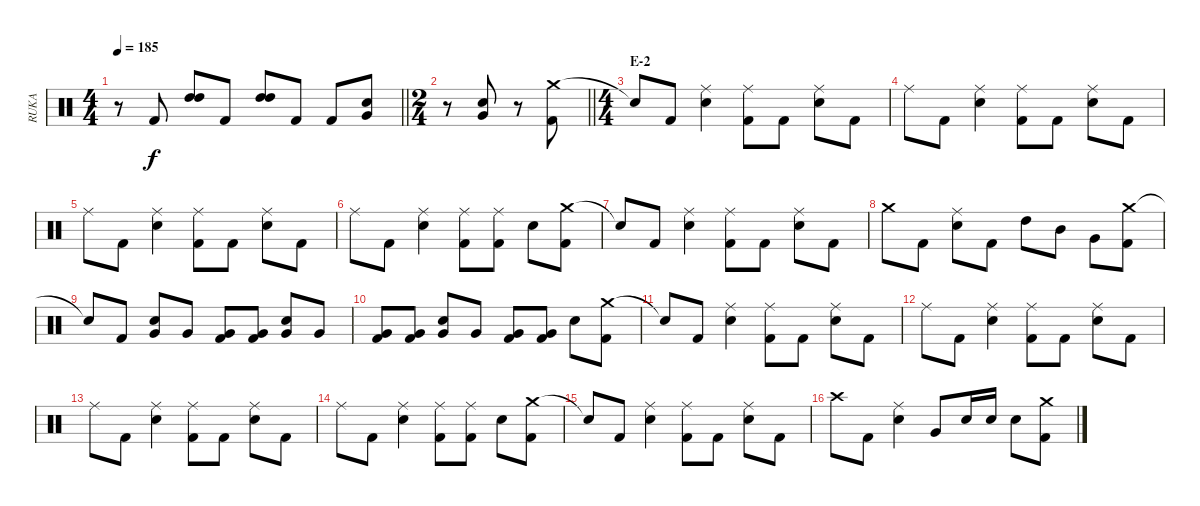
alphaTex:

\track ("RUKA" "RUKA") {instrument percussion}
\staff {score}
\articulation defaults
\ts (4 4)
\tempo 185
\clef neutral
\barLineRight lightlight
\ks c
r.8{dy ff} "Kick (hit) 2".8{dy f} ("High Tom (hit)" "High Tom (hit)").8 "Kick (hit) 2".8 ("High Tom (hit)" "High Tom (hit)").8 "Kick (hit) 2".8 "Kick (hit) 2".8 ("Very Low Tom (hit)" "Electric Snare (hit)").8 |
\ts (2 4)
\barLineRight lightlight
r.8 ("Very Low Tom (hit)" "Electric Snare (hit)").8 r.8 ("Crash medium (hit)" "Kick (hit) 2").8 |
\ts (4 4)
\section ("" "E-2")
"Snare (hit)"{t}.8 "Kick (hit) 2".8 ("Ride (middle)" "Electric Snare (hit)").4 ("Ride (middle)" "Kick (hit) 2").8 "Kick (hit) 2".8 ("Ride (middle)" "Electric Snare (hit)").8 "Kick (hit) 2".8 |
"Ride (middle)".8 "Kick (hit) 2".8 ("Ride (middle)" "Electric Snare (hit)").4 ("Ride (middle)" "Kick (hit) 2").8 "Kick (hit) 2".8 ("Ride (middle)" "Electric Snare (hit)").8 "Kick (hit) 2".8 |
"Ride (middle)".8 "Kick (hit) 2".8 ("Ride (middle)" "Electric Snare (hit)").4 ("Ride (middle)" "Kick (hit) 2").8 "Kick (hit) 2".8 ("Ride (middle)" "Electric Snare (hit)").8 "Kick (hit) 2".8 |
"Ride (middle)".8 "Kick (hit) 2".8 ("Ride (middle)" "Electric Snare (hit)").4 ("Ride (middle)" "Kick (hit) 2").8 ("Ride (middle)" "Kick (hit) 2").8 "Electric Snare (hit)".8 ("Crash medium (hit)" "Kick (hit) 2").8 |
"Snare (hit)"{t}.8 "Kick (hit) 2".8 ("Ride (middle)" "Electric Snare (hit)").4 ("Ride (middle)" "Kick (hit) 2").8 "Kick (hit) 2".8 ("Ride (middle)" "Electric Snare (hit)").8 "Kick (hit) 2".8 |
"Crash medium (hit)".8 "Kick (hit) 2".8 ("Ride (middle)" "Electric Snare (hit)").8 "Kick (hit) 2".8 "High Tom (hit)".8 "Mid Tom (hit)".8 "Very Low Tom (hit)".8 ("Crash medium (hit)" "Kick (hit) 2").8 |
"Snare (hit)"{t}.8 "Kick (hit) 2".8 ("Very Low Tom (hit)" "Electric Snare (hit)").8 "Very Low Tom (hit)".8 ("Very Low Tom (hit)" "Kick (hit) 2").8 ("Very Low Tom (hit)" "Kick (hit) 2").8 ("Electric Snare (hit)" "Very Low Tom (hit)").8 "Very Low Tom (hit)".8 |
("Very Low Tom (hit)" "Kick (hit) 2").8 ("Very Low Tom (hit)" "Kick (hit) 2").8 ("Electric Snare (hit)" "Very Low Tom (hit)").8 "Very Low Tom (hit)".8 ("Very Low Tom (hit)" "Kick (hit) 2").8 ("Very Low Tom (hit)" "Kick (hit) 2").8 "Electric Snare (hit)".8 ("Crash medium (hit)" "Kick (hit) 2").8 |
"Snare (hit)"{t}.8 "Kick (hit) 2".8 ("Ride (middle)" "Electric Snare (hit)").4 ("Ride (middle)" "Kick (hit) 2").8 "Kick (hit) 2".8 ("Ride (middle)" "Electric Snare (hit)").8 "Kick (hit) 2".8 |
"Ride (middle)".8 "Kick (hit) 2".8 ("Ride (middle)" "Electric Snare (hit)").4 ("Ride (middle)" "Kick (hit) 2").8 "Kick (hit) 2".8 ("Ride (middle)" "Electric Snare (hit)").8 "Kick (hit) 2".8 |
"Ride (middle)".8 "Kick (hit) 2".8 ("Ride (middle)" "Electric Snare (hit)").4 ("Ride (middle)" "Kick (hit) 2").8 "Kick (hit) 2".8 ("Ride (middle)" "Electric Snare (hit)").8 "Kick (hit) 2".8 |
"Ride (middle)".8 "Kick (hit) 2".8 ("Ride (middle)" "Electric Snare (hit)").4 ("Ride (middle)" "Kick (hit) 2").8 ("Ride (middle)" "Kick (hit) 2").8 "Electric Snare (hit)".8 ("Crash medium (hit)" "Kick (hit) 2").8 |
"Snare (hit)"{t}.8 "Kick (hit) 2".8 ("Ride (middle)" "Electric Snare (hit)").4 ("Ride (middle)" "Kick (hit) 2").8 "Kick (hit) 2".8 ("Ride (middle)" "Electric Snare (hit)").8 "Kick (hit) 2".8 |
"Crash high (hit)".8 "Kick (hit) 2".8 ("Ride (middle)" "Electric Snare (hit)").4 "Very Low Tom (hit)".8 "Electric Snare (hit)".16 "Electric Snare (hit)".16 "Electric Snare (hit)".8 ("Crash medium (hit)" "Kick (hit) 2").8
